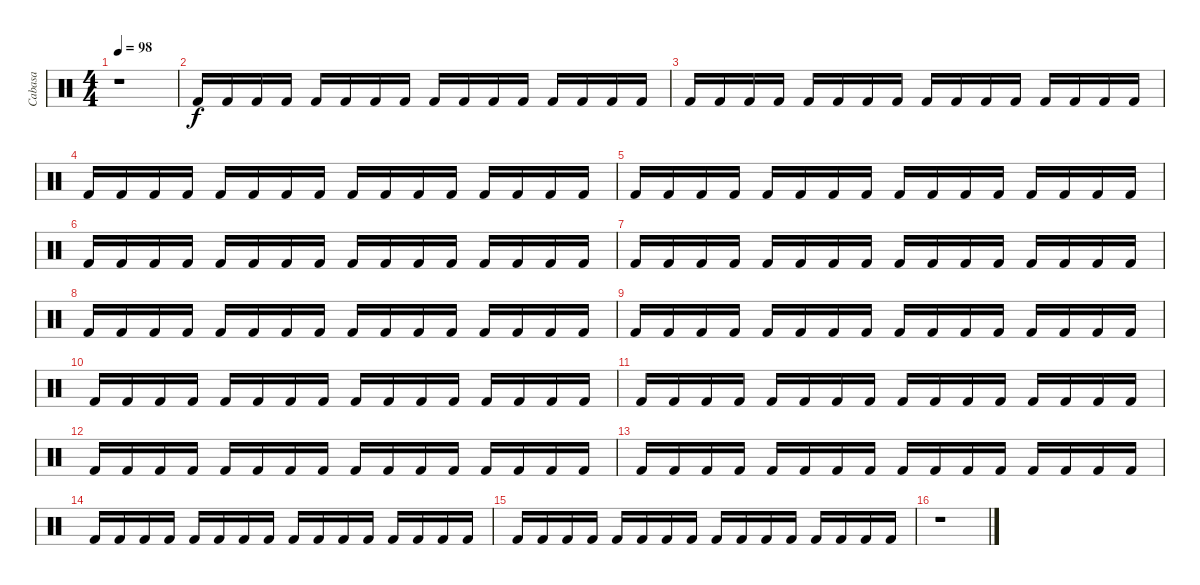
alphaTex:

\track ("Cabasa" "Cabasa") {instrument percussion}
\staff {score}
\articulation defaults
\ts (4 4)
\tempo 98
\clef neutral
\ks c
r.1{dy f} |
"Kick (hit) 2".16 "Kick (hit) 2".16 "Kick (hit) 2".16 "Kick (hit) 2".16 "Kick (hit) 2".16 "Kick (hit) 2".16 "Kick (hit) 2".16 "Kick (hit) 2".16 "Kick (hit) 2".16 "Kick (hit) 2".16 "Kick (hit) 2".16 "Kick (hit) 2".16 "Kick (hit) 2".16 "Kick (hit) 2".16 "Kick (hit) 2".16 "Kick (hit) 2".16 |
"Kick (hit) 2".16 "Kick (hit) 2".16 "Kick (hit) 2".16 "Kick (hit) 2".16 "Kick (hit) 2".16 "Kick (hit) 2".16 "Kick (hit) 2".16 "Kick (hit) 2".16 "Kick (hit) 2".16 "Kick (hit) 2".16 "Kick (hit) 2".16 "Kick (hit) 2".16 "Kick (hit) 2".16 "Kick (hit) 2".16 "Kick (hit) 2".16 "Kick (hit) 2".16 |
"Kick (hit) 2".16 "Kick (hit) 2".16 "Kick (hit) 2".16 "Kick (hit) 2".16 "Kick (hit) 2".16 "Kick (hit) 2".16 "Kick (hit) 2".16 "Kick (hit) 2".16 "Kick (hit) 2".16 "Kick (hit) 2".16 "Kick (hit) 2".16 "Kick (hit) 2".16 "Kick (hit) 2".16 "Kick (hit) 2".16 "Kick (hit) 2".16 "Kick (hit) 2".16 |
"Kick (hit) 2".16 "Kick (hit) 2".16 "Kick (hit) 2".16 "Kick (hit) 2".16 "Kick (hit) 2".16 "Kick (hit) 2".16 "Kick (hit) 2".16 "Kick (hit) 2".16 "Kick (hit) 2".16 "Kick (hit) 2".16 "Kick (hit) 2".16 "Kick (hit) 2".16 "Kick (hit) 2".16 "Kick (hit) 2".16 "Kick (hit) 2".16 "Kick (hit) 2".16 |
"Kick (hit) 2".16 "Kick (hit) 2".16 "Kick (hit) 2".16 "Kick (hit) 2".16 "Kick (hit) 2".16 "Kick (hit) 2".16 "Kick (hit) 2".16 "Kick (hit) 2".16 "Kick (hit) 2".16 "Kick (hit) 2".16 "Kick (hit) 2".16 "Kick (hit) 2".16 "Kick (hit) 2".16 "Kick (hit) 2".16 "Kick (hit) 2".16 "Kick (hit) 2".16 |
"Kick (hit) 2".16 "Kick (hit) 2".16 "Kick (hit) 2".16 "Kick (hit) 2".16 "Kick (hit) 2".16 "Kick (hit) 2".16 "Kick (hit) 2".16 "Kick (hit) 2".16 "Kick (hit) 2".16 "Kick (hit) 2".16 "Kick (hit) 2".16 "Kick (hit) 2".16 "Kick (hit) 2".16 "Kick (hit) 2".16 "Kick (hit) 2".16 "Kick (hit) 2".16 |
"Kick (hit) 2".16 "Kick (hit) 2".16 "Kick (hit) 2".16 "Kick (hit) 2".16 "Kick (hit) 2".16 "Kick (hit) 2".16 "Kick (hit) 2".16 "Kick (hit) 2".16 "Kick (hit) 2".16 "Kick (hit) 2".16 "Kick (hit) 2".16 "Kick (hit) 2".16 "Kick (hit) 2".16 "Kick (hit) 2".16 "Kick (hit) 2".16 "Kick (hit) 2".16 |
"Kick (hit) 2".16 "Kick (hit) 2".16 "Kick (hit) 2".16 "Kick (hit) 2".16 "Kick (hit) 2".16 "Kick (hit) 2".16 "Kick (hit) 2".16 "Kick (hit) 2".16 "Kick (hit) 2".16 "Kick (hit) 2".16 "Kick (hit) 2".16 "Kick (hit) 2".16 "Kick (hit) 2".16 "Kick (hit) 2".16 "Kick (hit) 2".16 "Kick (hit) 2".16 |
"Kick (hit) 2".16 "Kick (hit) 2".16 "Kick (hit) 2".16 "Kick (hit) 2".16 "Kick (hit) 2".16 "Kick (hit) 2".16 "Kick (hit) 2".16 "Kick (hit) 2".16 "Kick (hit) 2".16 "Kick (hit) 2".16 "Kick (hit) 2".16 "Kick (hit) 2".16 "Kick (hit) 2".16 "Kick (hit) 2".16 "Kick (hit) 2".16 "Kick (hit) 2".16 |
"Kick (hit) 2".16 "Kick (hit) 2".16 "Kick (hit) 2".16 "Kick (hit) 2".16 "Kick (hit) 2".16 "Kick (hit) 2".16 "Kick (hit) 2".16 "Kick (hit) 2".16 "Kick (hit) 2".16 "Kick (hit) 2".16 "Kick (hit) 2".16 "Kick (hit) 2".16 "Kick (hit) 2".16 "Kick (hit) 2".16 "Kick (hit) 2".16 "Kick (hit) 2".16 |
"Kick (hit) 2".16 "Kick (hit) 2".16 "Kick (hit) 2".16 "Kick (hit) 2".16 "Kick (hit) 2".16 "Kick (hit) 2".16 "Kick (hit) 2".16 "Kick (hit) 2".16 "Kick (hit) 2".16 "Kick (hit) 2".16 "Kick (hit) 2".16 "Kick (hit) 2".16 "Kick (hit) 2".16 "Kick (hit) 2".16 "Kick (hit) 2".16 "Kick (hit) 2".16 |
"Kick (hit) 2".16 "Kick (hit) 2".16 "Kick (hit) 2".16 "Kick (hit) 2".16 "Kick (hit) 2".16 "Kick (hit) 2".16 "Kick (hit) 2".16 "Kick (hit) 2".16 "Kick (hit) 2".16 "Kick (hit) 2".16 "Kick (hit) 2".16 "Kick (hit) 2".16 "Kick (hit) 2".16 "Kick (hit) 2".16 "Kick (hit) 2".16 "Kick (hit) 2".16 |
"Kick (hit) 2".16 "Kick (hit) 2".16 "Kick (hit) 2".16 "Kick (hit) 2".16 "Kick (hit) 2".16 "Kick (hit) 2".16 "Kick (hit) 2".16 "Kick (hit) 2".16 "Kick (hit) 2".16 "Kick (hit) 2".16 "Kick (hit) 2".16 "Kick (hit) 2".16 "Kick (hit) 2".16 "Kick (hit) 2".16 "Kick (hit) 2".16 "Kick (hit) 2".16 |
"Kick (hit) 2".16 "Kick (hit) 2".16 "Kick (hit) 2".16 "Kick (hit) 2".16 "Kick (hit) 2".16 "Kick (hit) 2".16 "Kick (hit) 2".16 "Kick (hit) 2".16 "Kick (hit) 2".16 "Kick (hit) 2".16 "Kick (hit) 2".16 "Kick (hit) 2".16 "Kick (hit) 2".16 "Kick (hit) 2".16 "Kick (hit) 2".16 "Kick (hit) 2".16 |
r.1
